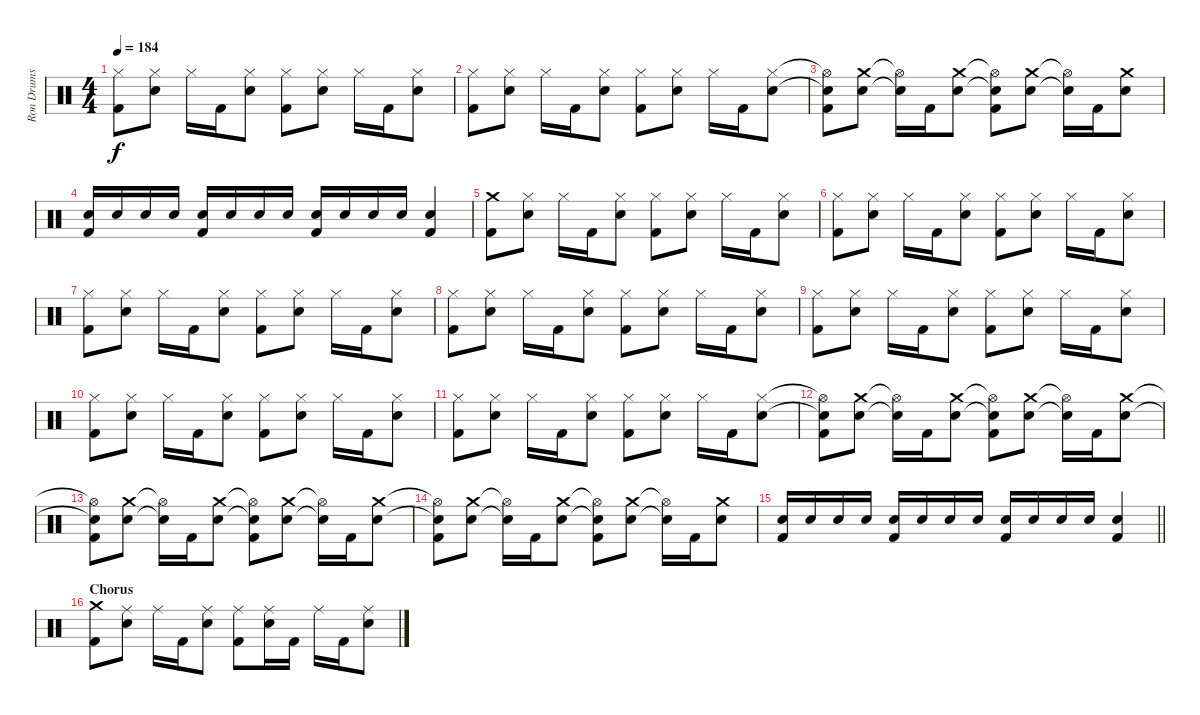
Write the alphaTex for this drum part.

\track ("Ron Drums and Percussion" "Ron Drums ") {instrument percussion}
\staff {score}
\articulation defaults
\ts (4 4)
\tempo 184
\clef neutral
\ks c
("Hi-Hat (closed)" "Kick (hit) 2").8{dy f} ("Hi-Hat (closed)" "Electric Snare (hit)").8 "Hi-Hat (closed)".16 "Kick (hit) 2".16 ("Hi-Hat (closed)" "Electric Snare (hit)").8 ("Hi-Hat (closed)" "Kick (hit) 2").8 ("Hi-Hat (closed)" "Electric Snare (hit)").8 "Hi-Hat (closed)".16 "Kick (hit) 2".16 ("Hi-Hat (closed)" "Electric Snare (hit)").8 |
("Hi-Hat (closed)" "Kick (hit) 2").8 ("Hi-Hat (closed)" "Electric Snare (hit)").8 "Hi-Hat (closed)".16 "Kick (hit) 2".16 ("Hi-Hat (closed)" "Electric Snare (hit)").8 ("Hi-Hat (closed)" "Kick (hit) 2").8 ("Hi-Hat (closed)" "Electric Snare (hit)").8 "Hi-Hat (closed)".16 "Kick (hit) 2".16 ("Hi-Hat (closed)" "Electric Snare (hit)").8 |
("Hi-Hat (open)"{t} "Snare (hit)"{t} "Kick (hit) 2").8 ("Crash medium (hit)" "Electric Snare (hit)").8 ("Hi-Hat (open)"{t} "Snare (hit)"{t}).16 "Kick (hit) 2".16 ("Crash medium (hit)" "Electric Snare (hit)").8 ("Hi-Hat (open)"{t} "Snare (hit)"{t} "Kick (hit) 2").8 ("Crash medium (hit)" "Electric Snare (hit)").8 ("Hi-Hat (open)"{t} "Snare (hit)"{t}).16 "Kick (hit) 2".16 ("Crash medium (hit)" "Electric Snare (hit)").8 |
("Electric Snare (hit)" "Kick (hit) 2").16 "Electric Snare (hit)".16 "Electric Snare (hit)".16 "Electric Snare (hit)".16 ("Electric Snare (hit)" "Kick (hit) 2").16 "Electric Snare (hit)".16 "Electric Snare (hit)".16 "Electric Snare (hit)".16 ("Electric Snare (hit)" "Kick (hit) 2").16 "Electric Snare (hit)".16 "Electric Snare (hit)".16 "Electric Snare (hit)".16 ("Electric Snare (hit)" "Kick (hit) 2").4 |
("Crash medium (hit)" "Kick (hit) 2").8 ("Hi-Hat (closed)" "Electric Snare (hit)").8 "Hi-Hat (closed)".16 "Kick (hit) 2".16 ("Hi-Hat (closed)" "Electric Snare (hit)").8 ("Hi-Hat (closed)" "Kick (hit) 2").8 ("Hi-Hat (closed)" "Electric Snare (hit)").8 "Hi-Hat (closed)".16 "Kick (hit) 2".16 ("Hi-Hat (closed)" "Electric Snare (hit)").8 |
("Hi-Hat (closed)" "Kick (hit) 2").8 ("Hi-Hat (closed)" "Electric Snare (hit)").8 "Hi-Hat (closed)".16 "Kick (hit) 2".16 ("Hi-Hat (closed)" "Electric Snare (hit)").8 ("Hi-Hat (closed)" "Kick (hit) 2").8 ("Hi-Hat (closed)" "Electric Snare (hit)").8 "Hi-Hat (closed)".16 "Kick (hit) 2".16 ("Hi-Hat (closed)" "Electric Snare (hit)").8 |
("Hi-Hat (closed)" "Kick (hit) 2").8 ("Hi-Hat (closed)" "Electric Snare (hit)").8 "Hi-Hat (closed)".16 "Kick (hit) 2".16 ("Hi-Hat (closed)" "Electric Snare (hit)").8 ("Hi-Hat (closed)" "Kick (hit) 2").8 ("Hi-Hat (closed)" "Electric Snare (hit)").8 "Hi-Hat (closed)".16 "Kick (hit) 2".16 ("Hi-Hat (closed)" "Electric Snare (hit)").8 |
("Hi-Hat (closed)" "Kick (hit) 2").8 ("Hi-Hat (closed)" "Electric Snare (hit)").8 "Hi-Hat (closed)".16 "Kick (hit) 2".16 ("Hi-Hat (closed)" "Electric Snare (hit)").8 ("Hi-Hat (closed)" "Kick (hit) 2").8 ("Hi-Hat (closed)" "Electric Snare (hit)").8 "Hi-Hat (closed)".16 "Kick (hit) 2".16 ("Hi-Hat (closed)" "Electric Snare (hit)").8 |
("Hi-Hat (closed)" "Kick (hit) 2").8 ("Hi-Hat (closed)" "Electric Snare (hit)").8 "Hi-Hat (closed)".16 "Kick (hit) 2".16 ("Hi-Hat (closed)" "Electric Snare (hit)").8 ("Hi-Hat (closed)" "Kick (hit) 2").8 ("Hi-Hat (closed)" "Electric Snare (hit)").8 "Hi-Hat (closed)".16 "Kick (hit) 2".16 ("Hi-Hat (closed)" "Electric Snare (hit)").8 |
("Hi-Hat (closed)" "Kick (hit) 2").8 ("Hi-Hat (closed)" "Electric Snare (hit)").8 "Hi-Hat (closed)".16 "Kick (hit) 2".16 ("Hi-Hat (closed)" "Electric Snare (hit)").8 ("Hi-Hat (closed)" "Kick (hit) 2").8 ("Hi-Hat (closed)" "Electric Snare (hit)").8 "Hi-Hat (closed)".16 "Kick (hit) 2".16 ("Hi-Hat (closed)" "Electric Snare (hit)").8 |
("Hi-Hat (closed)" "Kick (hit) 2").8 ("Hi-Hat (closed)" "Electric Snare (hit)").8 "Hi-Hat (closed)".16 "Kick (hit) 2".16 ("Hi-Hat (closed)" "Electric Snare (hit)").8 ("Hi-Hat (closed)" "Kick (hit) 2").8 ("Hi-Hat (closed)" "Electric Snare (hit)").8 "Hi-Hat (closed)".16 "Kick (hit) 2".16 ("Hi-Hat (closed)" "Electric Snare (hit)").8 |
("Hi-Hat (open)"{t} "Snare (hit)"{t} "Kick (hit) 2").8 ("Crash medium (hit)" "Electric Snare (hit)").8 ("Hi-Hat (open)"{t} "Snare (hit)"{t}).16 "Kick (hit) 2".16 ("Crash medium (hit)" "Electric Snare (hit)").8 ("Hi-Hat (open)"{t} "Snare (hit)"{t} "Kick (hit) 2").8 ("Crash medium (hit)" "Electric Snare (hit)").8 ("Hi-Hat (open)"{t} "Snare (hit)"{t}).16 "Kick (hit) 2".16 ("Crash medium (hit)" "Electric Snare (hit)").8 |
("Hi-Hat (open)"{t} "Snare (hit)"{t} "Kick (hit) 2").8 ("Crash medium (hit)" "Electric Snare (hit)").8 ("Hi-Hat (open)"{t} "Snare (hit)"{t}).16 "Kick (hit) 2".16 ("Crash medium (hit)" "Electric Snare (hit)").8 ("Hi-Hat (open)"{t} "Snare (hit)"{t} "Kick (hit) 2").8 ("Crash medium (hit)" "Electric Snare (hit)").8 ("Hi-Hat (open)"{t} "Snare (hit)"{t}).16 "Kick (hit) 2".16 ("Crash medium (hit)" "Electric Snare (hit)").8 |
("Hi-Hat (open)"{t} "Snare (hit)"{t} "Kick (hit) 2").8 ("Crash medium (hit)" "Electric Snare (hit)").8 ("Hi-Hat (open)"{t} "Snare (hit)"{t}).16 "Kick (hit) 2".16 ("Crash medium (hit)" "Electric Snare (hit)").8 ("Hi-Hat (open)"{t} "Snare (hit)"{t} "Kick (hit) 2").8 ("Crash medium (hit)" "Electric Snare (hit)").8 ("Hi-Hat (open)"{t} "Snare (hit)"{t}).16 "Kick (hit) 2".16 ("Crash medium (hit)" "Electric Snare (hit)").8 |
\barLineRight lightlight
("Electric Snare (hit)" "Kick (hit) 2").16 "Electric Snare (hit)".16 "Electric Snare (hit)".16 "Electric Snare (hit)".16 ("Electric Snare (hit)" "Kick (hit) 2").16 "Electric Snare (hit)".16 "Electric Snare (hit)".16 "Electric Snare (hit)".16 ("Electric Snare (hit)" "Kick (hit) 2").16 "Electric Snare (hit)".16 "Electric Snare (hit)".16 "Electric Snare (hit)".16 ("Electric Snare (hit)" "Kick (hit) 2").4 |
\section ("" "Chorus")
("Crash medium (hit)" "Kick (hit) 2").8 ("Ride (middle)" "Electric Snare (hit)").8 "Ride (middle)".16 "Kick (hit) 2".16 ("Ride (middle)" "Electric Snare (hit)").8 ("Ride (middle)" "Kick (hit) 2").8 ("Ride (middle)" "Electric Snare (hit)").16 "Kick (hit) 2".16 "Ride (middle)".16 "Kick (hit) 2".16 ("Ride (middle)" "Electric Snare (hit)").8
